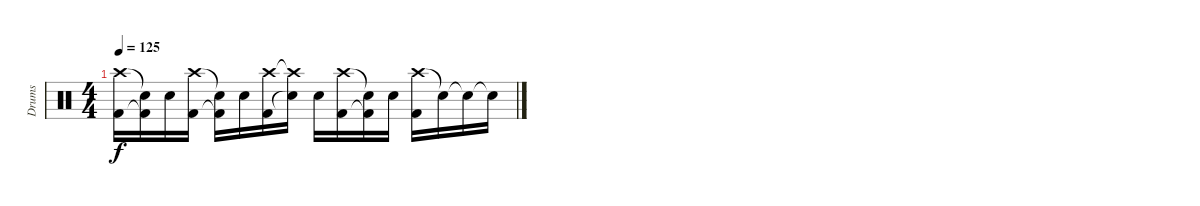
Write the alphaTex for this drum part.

\track ("Drums" "Drums") {instrument percussion}
\staff {score}
\articulation defaults
\ts (4 4)
\tempo 125
\clef neutral
\ks c
("Crash high (hit)" "Kick (hit) 2").16{dy f} ("Snare (hit)"{t} "Kick (hit) 2"{t}).16 "Electric Snare (hit)".16 ("Crash high (hit)" "Kick (hit) 2").16 ("Snare (hit)"{t} "Kick (hit) 2"{t}).16 "Electric Snare (hit)".16 ("Crash high (hit)" "Kick (hit) 2").16 ("Crash high (hit)"{t} "Snare (hit)"{t}).16 "Electric Snare (hit)".16 ("Crash high (hit)" "Kick (hit) 2").16 ("Snare (hit)"{t} "Kick (hit) 2"{t}).16 "Electric Snare (hit)".16 ("Crash high (hit)" "Kick (hit) 2").16 "Snare (hit)"{t}.16 "Snare (hit)"{t}.16 "Snare (hit)"{t}.16
